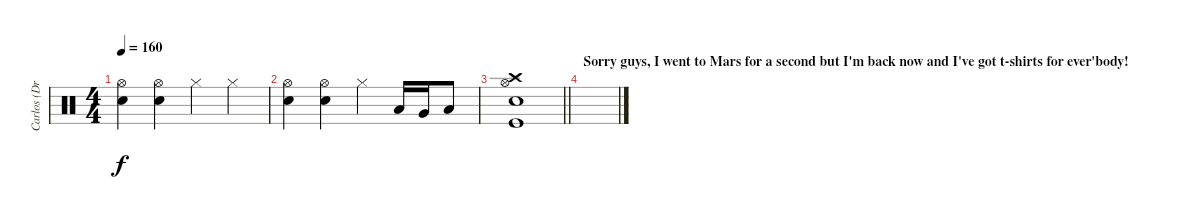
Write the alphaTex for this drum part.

\track ("Carlos (Drums)" "Carlos (Dr") {instrument percussion}
\staff {score}
\articulation defaults
\ts (4 4)
\tempo 160
\clef neutral
\ks c
("Hi-Hat (open)" "Snare (hit) 2").4{dy f} ("Hi-Hat (open)" "Snare (hit) 2").4 "Hi-Hat (closed)".4 "Hi-Hat (closed)".4 |
("Hi-Hat (open)" "Snare (hit) 2").4 ("Hi-Hat (open)" "Snare (hit) 2").4 "Hi-Hat (closed)".4 "Low Tom (hit)".16 "Very Low Tom (hit)".16 "Low Floor Tom (hit)".8 |
\barLineRight lightlight
("Crash high (hit)" "Hi-Hat (open)" "Snare (hit) 2" "Kick (hit)").1 |
\section ("" "Sorry guys, I went to Mars for a second but I'm back now and I've got t-shirts for ever'body!")
